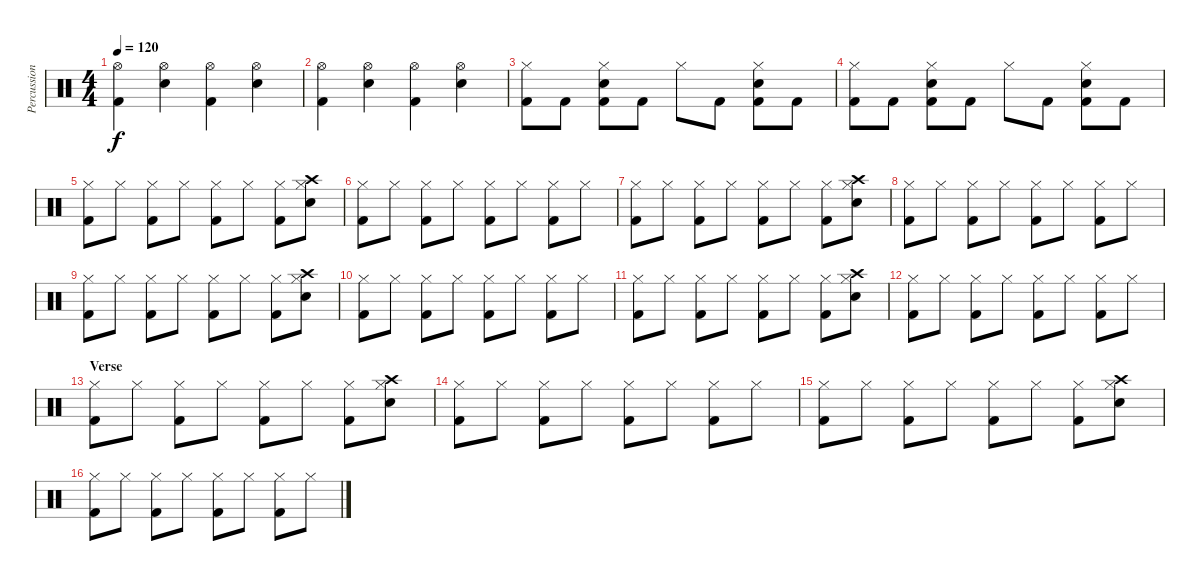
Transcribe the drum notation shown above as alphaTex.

\track ("Percussion" "Percussion") {instrument percussion}
\staff {score}
\articulation defaults
\ts (4 4)
\tempo 120
\clef neutral
\ks c
("Hi-Hat (open)" "Kick (hit) 2").4{dy f} ("Hi-Hat (open)" "Snare (hit) 2").4 ("Hi-Hat (open)" "Kick (hit) 2").4 ("Hi-Hat (open)" "Snare (hit) 2").4 |
("Hi-Hat (open)" "Kick (hit) 2").4 ("Hi-Hat (open)" "Snare (hit) 2").4 ("Hi-Hat (open)" "Kick (hit) 2").4 ("Hi-Hat (open)" "Snare (hit) 2").4 |
("Hi-Hat (closed)" "Kick (hit) 2").8 "Kick (hit) 2".8 ("Hi-Hat (closed)" "Kick (hit) 2" "Snare (hit) 2").8 "Kick (hit) 2".8 "Hi-Hat (closed)".8 "Kick (hit) 2".8 ("Hi-Hat (closed)" "Kick (hit) 2" "Snare (hit) 2").8 "Kick (hit) 2".8 |
("Hi-Hat (closed)" "Kick (hit) 2").8 "Kick (hit) 2".8 ("Hi-Hat (closed)" "Kick (hit) 2" "Snare (hit) 2").8 "Kick (hit) 2".8 "Hi-Hat (closed)".8 "Kick (hit) 2".8 ("Hi-Hat (closed)" "Kick (hit) 2" "Snare (hit) 2").8 "Kick (hit) 2".8 |
("Hi-Hat (closed)" "Kick (hit) 2").8 "Hi-Hat (closed)".8 ("Hi-Hat (closed)" "Kick (hit) 2").8 "Hi-Hat (closed)".8 ("Hi-Hat (closed)" "Kick (hit) 2").8 "Hi-Hat (closed)".8 ("Hi-Hat (closed)" "Kick (hit) 2").8 ("Hi-Hat (closed)" "Snare (hit) 2" "Crash high (hit)").8 |
("Hi-Hat (closed)" "Kick (hit) 2").8 "Hi-Hat (closed)".8 ("Hi-Hat (closed)" "Kick (hit) 2").8 "Hi-Hat (closed)".8 ("Hi-Hat (closed)" "Kick (hit) 2").8 "Hi-Hat (closed)".8 ("Hi-Hat (closed)" "Kick (hit) 2").8 "Hi-Hat (closed)".8 |
("Hi-Hat (closed)" "Kick (hit) 2").8 "Hi-Hat (closed)".8 ("Hi-Hat (closed)" "Kick (hit) 2").8 "Hi-Hat (closed)".8 ("Hi-Hat (closed)" "Kick (hit) 2").8 "Hi-Hat (closed)".8 ("Hi-Hat (closed)" "Kick (hit) 2").8 ("Hi-Hat (closed)" "Snare (hit) 2" "Crash high (hit)").8 |
("Hi-Hat (closed)" "Kick (hit) 2").8 "Hi-Hat (closed)".8 ("Hi-Hat (closed)" "Kick (hit) 2").8 "Hi-Hat (closed)".8 ("Hi-Hat (closed)" "Kick (hit) 2").8 "Hi-Hat (closed)".8 ("Hi-Hat (closed)" "Kick (hit) 2").8 "Hi-Hat (closed)".8 |
("Hi-Hat (closed)" "Kick (hit) 2").8 "Hi-Hat (closed)".8 ("Hi-Hat (closed)" "Kick (hit) 2").8 "Hi-Hat (closed)".8 ("Hi-Hat (closed)" "Kick (hit) 2").8 "Hi-Hat (closed)".8 ("Hi-Hat (closed)" "Kick (hit) 2").8 ("Hi-Hat (closed)" "Snare (hit) 2" "Crash high (hit)").8 |
("Hi-Hat (closed)" "Kick (hit) 2").8 "Hi-Hat (closed)".8 ("Hi-Hat (closed)" "Kick (hit) 2").8 "Hi-Hat (closed)".8 ("Hi-Hat (closed)" "Kick (hit) 2").8 "Hi-Hat (closed)".8 ("Hi-Hat (closed)" "Kick (hit) 2").8 "Hi-Hat (closed)".8 |
("Hi-Hat (closed)" "Kick (hit) 2").8 "Hi-Hat (closed)".8 ("Hi-Hat (closed)" "Kick (hit) 2").8 "Hi-Hat (closed)".8 ("Hi-Hat (closed)" "Kick (hit) 2").8 "Hi-Hat (closed)".8 ("Hi-Hat (closed)" "Kick (hit) 2").8 ("Hi-Hat (closed)" "Snare (hit) 2" "Crash high (hit)").8 |
("Hi-Hat (closed)" "Kick (hit) 2").8 "Hi-Hat (closed)".8 ("Hi-Hat (closed)" "Kick (hit) 2").8 "Hi-Hat (closed)".8 ("Hi-Hat (closed)" "Kick (hit) 2").8 "Hi-Hat (closed)".8 ("Hi-Hat (closed)" "Kick (hit) 2").8 "Hi-Hat (closed)".8 |
\section ("" "Verse")
("Hi-Hat (closed)" "Kick (hit) 2").8 "Hi-Hat (closed)".8 ("Hi-Hat (closed)" "Kick (hit) 2").8 "Hi-Hat (closed)".8 ("Hi-Hat (closed)" "Kick (hit) 2").8 "Hi-Hat (closed)".8 ("Hi-Hat (closed)" "Kick (hit) 2").8 ("Hi-Hat (closed)" "Snare (hit) 2" "Crash high (hit)").8 |
("Hi-Hat (closed)" "Kick (hit) 2").8 "Hi-Hat (closed)".8 ("Hi-Hat (closed)" "Kick (hit) 2").8 "Hi-Hat (closed)".8 ("Hi-Hat (closed)" "Kick (hit) 2").8 "Hi-Hat (closed)".8 ("Hi-Hat (closed)" "Kick (hit) 2").8 "Hi-Hat (closed)".8 |
("Hi-Hat (closed)" "Kick (hit) 2").8 "Hi-Hat (closed)".8 ("Hi-Hat (closed)" "Kick (hit) 2").8 "Hi-Hat (closed)".8 ("Hi-Hat (closed)" "Kick (hit) 2").8 "Hi-Hat (closed)".8 ("Hi-Hat (closed)" "Kick (hit) 2").8 ("Hi-Hat (closed)" "Snare (hit) 2" "Crash high (hit)").8 |
("Hi-Hat (closed)" "Kick (hit) 2").8 "Hi-Hat (closed)".8 ("Hi-Hat (closed)" "Kick (hit) 2").8 "Hi-Hat (closed)".8 ("Hi-Hat (closed)" "Kick (hit) 2").8 "Hi-Hat (closed)".8 ("Hi-Hat (closed)" "Kick (hit) 2").8 "Hi-Hat (closed)".8
